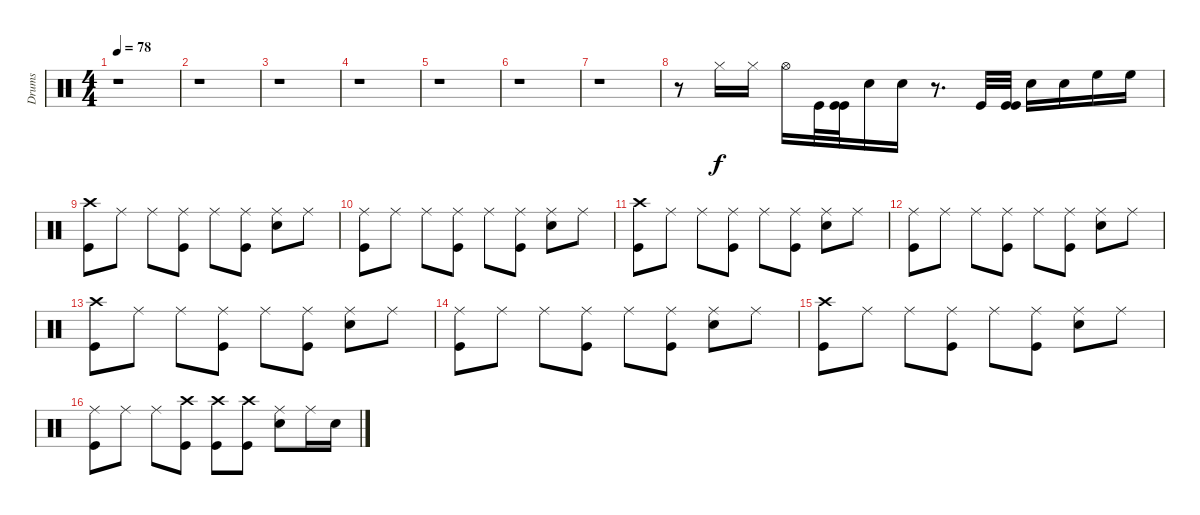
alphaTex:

\track ("Drums" "Drums") {instrument percussion}
\staff {score}
\articulation defaults
\ts (4 4)
\tempo 78
\clef neutral
\ks c
r.1{dy f} |
r.1 |
r.1 |
r.1 |
r.1 |
r.1 |
r.1 |
r.8 "Hi-Hat (closed)".16 "Hi-Hat (closed)".16 "Hi-Hat (open)".16 "Kick (hit)".32 ("Kick (hit)" "Kick (hit)").32 "Snare (hit) 2".16 "Snare (hit) 2".16 r.8{d} "Kick (hit)".32 ("Kick (hit)" "Kick (hit)").32 "Snare (hit) 2".16 "Snare (hit) 2".16 "High Floor Tom (hit)".16 "High Floor Tom (hit)".16 |
("Kick (hit)" "Crash high (hit)").8 "Ride (middle)".8 "Ride (middle)".8 ("Kick (hit)" "Ride (middle)").8 "Ride (middle)".8 ("Kick (hit)" "Ride (middle)").8 ("Snare (hit) 2" "Ride (middle)").8 "Ride (middle)".8 |
("Kick (hit)" "Ride (middle)").8 "Ride (middle)".8 "Ride (middle)".8 ("Kick (hit)" "Ride (middle)").8 "Ride (middle)".8 ("Kick (hit)" "Ride (middle)").8 ("Snare (hit) 2" "Ride (middle)").8 "Ride (middle)".8 |
("Kick (hit)" "Crash high (hit)").8 "Ride (middle)".8 "Ride (middle)".8 ("Kick (hit)" "Ride (middle)").8 "Ride (middle)".8 ("Kick (hit)" "Ride (middle)").8 ("Snare (hit) 2" "Ride (middle)").8 "Ride (middle)".8 |
("Kick (hit)" "Ride (middle)").8 "Ride (middle)".8 "Ride (middle)".8 ("Kick (hit)" "Ride (middle)").8 "Ride (middle)".8 ("Kick (hit)" "Ride (middle)").8 ("Snare (hit) 2" "Ride (middle)").8 "Ride (middle)".8 |
("Kick (hit)" "Crash high (hit)").8 "Ride (middle)".8 "Ride (middle)".8 ("Kick (hit)" "Ride (middle)").8 "Ride (middle)".8 ("Kick (hit)" "Ride (middle)").8 ("Snare (hit) 2" "Ride (middle)").8 "Ride (middle)".8 |
("Kick (hit)" "Ride (middle)").8 "Ride (middle)".8 "Ride (middle)".8 ("Kick (hit)" "Ride (middle)").8 "Ride (middle)".8 ("Kick (hit)" "Ride (middle)").8 ("Snare (hit) 2" "Ride (middle)").8 "Ride (middle)".8 |
("Kick (hit)" "Crash high (hit)").8 "Ride (middle)".8 "Ride (middle)".8 ("Kick (hit)" "Ride (middle)").8 "Ride (middle)".8 ("Kick (hit)" "Ride (middle)").8 ("Snare (hit) 2" "Ride (middle)").8 "Ride (middle)".8 |
("Kick (hit)" "Ride (middle)").8 "Ride (middle)".8 "Ride (middle)".8 ("Kick (hit)" "Crash high (hit)").8 ("Kick (hit)" "Crash high (hit)").8 ("Kick (hit)" "Crash high (hit)").8 ("Snare (hit) 2" "Ride (middle)").8 "Ride (middle)".16 "Snare (hit) 2".16
